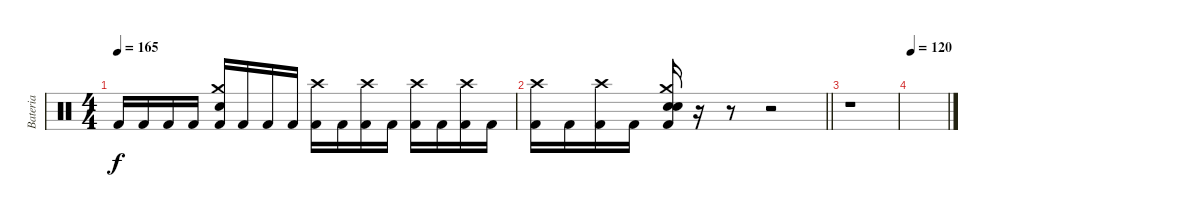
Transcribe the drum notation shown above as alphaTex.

\track ("Bateria" "Bateria") {instrument percussion}
\staff {score}
\articulation defaults
\ts (4 4)
\tempo 165
\clef neutral
\ks c "Kick (hit) 2".16{dy f} "Kick (hit) 2".16 "Kick (hit) 2".16 "Kick (hit) 2".16
("Crash medium (hit)" "Snare (hit) 2" "Kick (hit) 2").16 "Kick (hit) 2".16 "Kick (hit) 2".16 "Kick (hit) 2".16 ("Crash high (hit)" "Kick (hit) 2").16 "Kick (hit) 2".16 ("Crash high (hit)" "Kick (hit) 2").16 "Kick (hit) 2".16 ("Crash high (hit)" "Kick (hit) 2").16 "Kick (hit) 2".16 ("Crash high (hit)" "Kick (hit) 2").16 "Kick (hit) 2".16 |
\barLineRight lightlight
("Crash high (hit)" "Kick (hit) 2").16 "Kick (hit) 2".16 ("Crash high (hit)" "Kick (hit) 2").16 "Kick (hit) 2".16 ("Crash medium (hit)" "Snare (hit) 2" "Electric Snare (hit)" "Kick (hit) 2").16 r.16 r.8 r.2 |
r.1 |
\tempo 120
